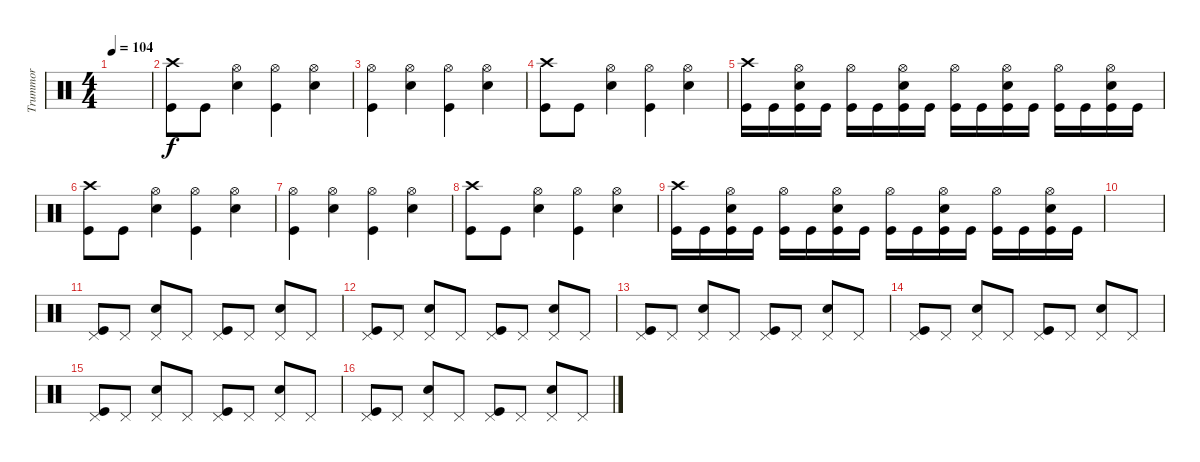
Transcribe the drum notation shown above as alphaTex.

\track ("Trummor" "Trummor") {instrument percussion}
\staff {score}
\articulation defaults
\ts (4 4)
\tempo 104
\clef neutral
\ks c
|
("Crash high (hit)" "Kick (hit)").8 "Kick (hit)".8 ("Hi-Hat (open)" "Snare (hit) 2").4 ("Hi-Hat (open)" "Kick (hit)").4 ("Hi-Hat (open)" "Snare (hit) 2").4 |
("Hi-Hat (open)" "Kick (hit)").4 ("Hi-Hat (open)" "Snare (hit) 2").4 ("Hi-Hat (open)" "Kick (hit)").4 ("Hi-Hat (open)" "Snare (hit) 2").4 |
("Crash high (hit)" "Kick (hit)").8 "Kick (hit)".8 ("Hi-Hat (open)" "Snare (hit) 2").4 ("Hi-Hat (open)" "Kick (hit)").4 ("Hi-Hat (open)" "Snare (hit) 2").4 |
("Crash high (hit)" "Kick (hit)").16 "Kick (hit)".16 ("Hi-Hat (open)" "Electric Snare (hit)" "Kick (hit)").16 "Kick (hit)".16 ("Hi-Hat (open)" "Kick (hit)").16 "Kick (hit)".16 ("Hi-Hat (open)" "Electric Snare (hit)" "Kick (hit)").16 "Kick (hit)".16 ("Hi-Hat (open)" "Kick (hit)").16 "Kick (hit)".16 ("Hi-Hat (open)" "Electric Snare (hit)" "Kick (hit)").16 "Kick (hit)".16 ("Hi-Hat (open)" "Kick (hit)").16 "Kick (hit)".16 ("Hi-Hat (open)" "Electric Snare (hit)" "Kick (hit)").16 "Kick (hit)".16 |
("Crash high (hit)" "Kick (hit)").8 "Kick (hit)".8 ("Hi-Hat (open)" "Snare (hit) 2").4 ("Hi-Hat (open)" "Kick (hit)").4 ("Hi-Hat (open)" "Snare (hit) 2").4 |
("Hi-Hat (open)" "Kick (hit)").4 ("Hi-Hat (open)" "Snare (hit) 2").4 ("Hi-Hat (open)" "Kick (hit)").4 ("Hi-Hat (open)" "Snare (hit) 2").4 |
("Crash high (hit)" "Kick (hit)").8 "Kick (hit)".8 ("Hi-Hat (open)" "Snare (hit) 2").4 ("Hi-Hat (open)" "Kick (hit)").4 ("Hi-Hat (open)" "Snare (hit) 2").4 |
("Crash high (hit)" "Kick (hit)").16 "Kick (hit)".16 ("Hi-Hat (open)" "Electric Snare (hit)" "Kick (hit)").16 "Kick (hit)".16 ("Hi-Hat (open)" "Kick (hit)").16 "Kick (hit)".16 ("Hi-Hat (open)" "Electric Snare (hit)" "Kick (hit)").16 "Kick (hit)".16 ("Hi-Hat (open)" "Kick (hit)").16 "Kick (hit)".16 ("Hi-Hat (open)" "Electric Snare (hit)" "Kick (hit)").16 "Kick (hit)".16 ("Hi-Hat (open)" "Kick (hit)").16 "Kick (hit)".16 ("Hi-Hat (open)" "Electric Snare (hit)" "Kick (hit)").16 "Kick (hit)".16 |
|
("Pedal Hi-Hat (hit)" "Kick (hit)").8 "Pedal Hi-Hat (hit)".8 ("Pedal Hi-Hat (hit)" "Snare (hit) 2").8 "Pedal Hi-Hat (hit)".8 ("Pedal Hi-Hat (hit)" "Kick (hit)").8 "Pedal Hi-Hat (hit)".8 ("Pedal Hi-Hat (hit)" "Snare (hit) 2").8 "Pedal Hi-Hat (hit)".8 |
("Pedal Hi-Hat (hit)" "Kick (hit)").8 "Pedal Hi-Hat (hit)".8 ("Pedal Hi-Hat (hit)" "Snare (hit) 2").8 "Pedal Hi-Hat (hit)".8 ("Pedal Hi-Hat (hit)" "Kick (hit)").8 "Pedal Hi-Hat (hit)".8 ("Pedal Hi-Hat (hit)" "Snare (hit) 2").8 "Pedal Hi-Hat (hit)".8 |
("Pedal Hi-Hat (hit)" "Kick (hit)").8 "Pedal Hi-Hat (hit)".8 ("Pedal Hi-Hat (hit)" "Snare (hit) 2").8 "Pedal Hi-Hat (hit)".8 ("Pedal Hi-Hat (hit)" "Kick (hit)").8 "Pedal Hi-Hat (hit)".8 ("Pedal Hi-Hat (hit)" "Snare (hit) 2").8 "Pedal Hi-Hat (hit)".8 |
("Pedal Hi-Hat (hit)" "Kick (hit)").8 "Pedal Hi-Hat (hit)".8 ("Pedal Hi-Hat (hit)" "Snare (hit) 2").8 "Pedal Hi-Hat (hit)".8 ("Pedal Hi-Hat (hit)" "Kick (hit)").8 "Pedal Hi-Hat (hit)".8 ("Pedal Hi-Hat (hit)" "Snare (hit) 2").8 "Pedal Hi-Hat (hit)".8 |
("Pedal Hi-Hat (hit)" "Kick (hit)").8 "Pedal Hi-Hat (hit)".8 ("Pedal Hi-Hat (hit)" "Snare (hit) 2").8 "Pedal Hi-Hat (hit)".8 ("Pedal Hi-Hat (hit)" "Kick (hit)").8 "Pedal Hi-Hat (hit)".8 ("Pedal Hi-Hat (hit)" "Snare (hit) 2").8 "Pedal Hi-Hat (hit)".8 |
("Pedal Hi-Hat (hit)" "Kick (hit)").8 "Pedal Hi-Hat (hit)".8 ("Pedal Hi-Hat (hit)" "Snare (hit) 2").8 "Pedal Hi-Hat (hit)".8 ("Pedal Hi-Hat (hit)" "Kick (hit)").8 "Pedal Hi-Hat (hit)".8 ("Pedal Hi-Hat (hit)" "Snare (hit) 2").8 "Pedal Hi-Hat (hit)".8
